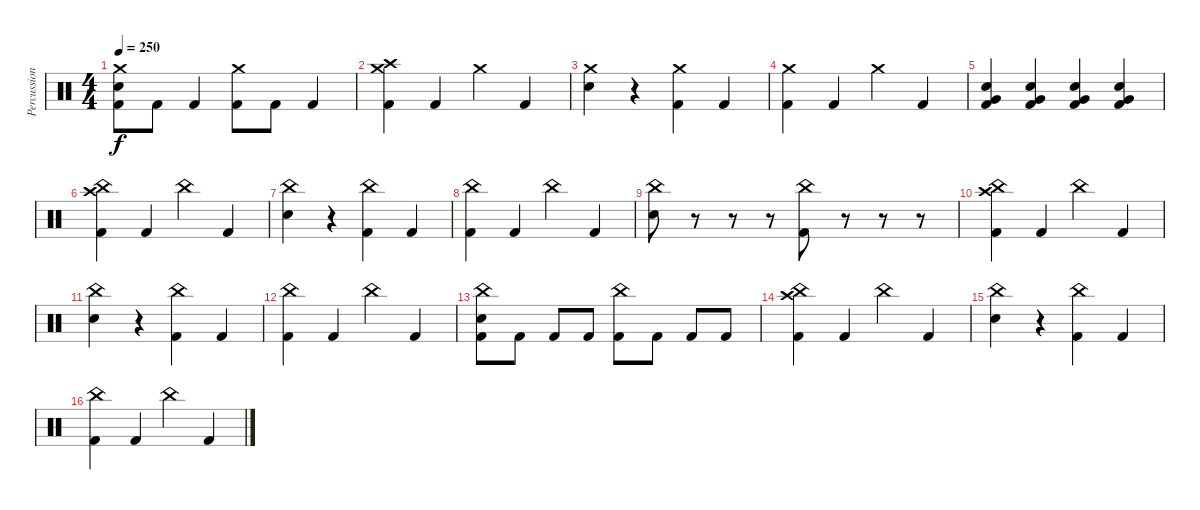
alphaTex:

\track ("Percussion" "Percussion") {instrument percussion}
\staff {score}
\articulation defaults
\ts (4 4)
\tempo 250
\clef neutral
\ks c
("Crash medium (hit)" "Electric Snare (hit)" "Kick (hit) 2").8{dy f} "Kick (hit) 2".8 "Kick (hit) 2".4 ("Crash medium (hit)" "Kick (hit) 2").8 "Kick (hit) 2".8 "Kick (hit) 2".4 |
("Crash high (hit)" "Crash medium (hit)" "Kick (hit) 2").4 "Kick (hit) 2".4 "Crash medium (hit)".4 "Kick (hit) 2".4 |
("Crash medium (hit)" "Electric Snare (hit)").4 r.4 ("Crash medium (hit)" "Kick (hit) 2").4 "Kick (hit) 2".4 |
("Crash medium (hit)" "Kick (hit) 2").4 "Kick (hit) 2".4 "Crash medium (hit)".4 "Kick (hit) 2".4 |
("Electric Snare (hit)" "Very Low Tom (hit)" "Kick (hit) 2").4 ("Electric Snare (hit)" "Very Low Tom (hit)" "Kick (hit) 2").4 ("Electric Snare (hit)" "Very Low Tom (hit)" "Kick (hit) 2").4 ("Electric Snare (hit)" "Very Low Tom (hit)" "Kick (hit) 2").4 |
("Crash high (hit)" "China (hit)" "Kick (hit) 2").4 "Kick (hit) 2".4 "China (hit)".4 "Kick (hit) 2".4 |
("China (hit)" "Electric Snare (hit)").4 r.4 ("China (hit)" "Kick (hit) 2").4 "Kick (hit) 2".4 |
("China (hit)" "Kick (hit) 2").4 "Kick (hit) 2".4 "China (hit)".4 "Kick (hit) 2".4 |
("China (hit)" "Electric Snare (hit)").8 r.8 r.8 r.8 ("China (hit)" "Kick (hit) 2").8 r.8 r.8 r.8 |
("Crash high (hit)" "China (hit)" "Kick (hit) 2").4 "Kick (hit) 2".4 "China (hit)".4 "Kick (hit) 2".4 |
("China (hit)" "Electric Snare (hit)").4 r.4 ("China (hit)" "Kick (hit) 2").4 "Kick (hit) 2".4 |
("China (hit)" "Kick (hit) 2").4 "Kick (hit) 2".4 "China (hit)".4 "Kick (hit) 2".4 |
("China (hit)" "Electric Snare (hit)" "Kick (hit) 2").8 "Kick (hit) 2".8 "Kick (hit) 2".8 "Kick (hit) 2".8 ("China (hit)" "Kick (hit) 2").8 "Kick (hit) 2".8 "Kick (hit) 2".8 "Kick (hit) 2".8 |
("Crash high (hit)" "China (hit)" "Kick (hit) 2").4 "Kick (hit) 2".4 "China (hit)".4 "Kick (hit) 2".4 |
("China (hit)" "Electric Snare (hit)").4 r.4 ("China (hit)" "Kick (hit) 2").4 "Kick (hit) 2".4 |
("China (hit)" "Kick (hit) 2").4 "Kick (hit) 2".4 "China (hit)".4 "Kick (hit) 2".4
